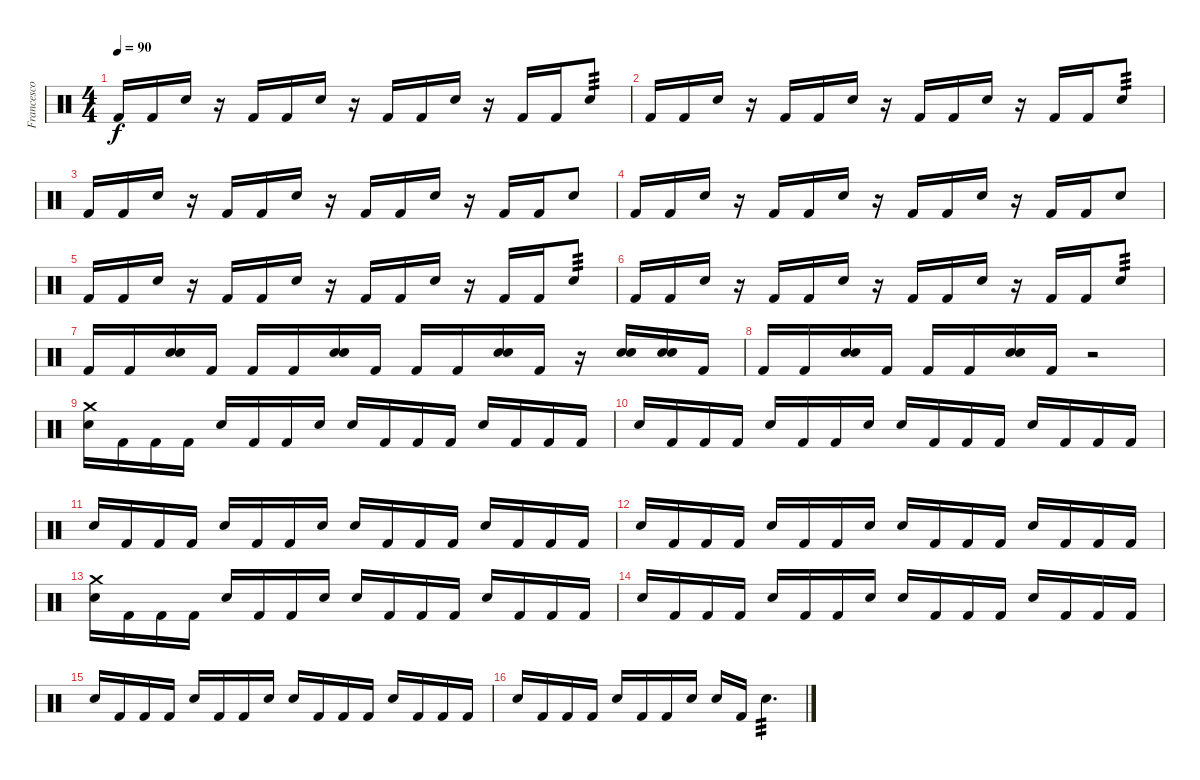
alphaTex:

\track ("Francesco -Franz- Valente" "Francesco ") {instrument percussion}
\staff {score}
\articulation defaults
\ts (4 4)
\tempo 90
\clef neutral
\ks c "Kick (hit) 2".16{dy f} "Kick (hit) 2".16 "Electric Snare (hit)".16
r.16 "Kick (hit) 2".16 "Kick (hit) 2".16 "Electric Snare (hit)".16 r.16 "Kick (hit) 2".16 "Kick (hit) 2".16 "Electric Snare (hit)".16 r.16 "Kick (hit) 2".16 "Kick (hit) 2".16 "Electric Snare (hit)".8{tp 3} |
"Kick (hit) 2".16 "Kick (hit) 2".16 "Electric Snare (hit)".16 r.16 "Kick (hit) 2".16 "Kick (hit) 2".16 "Electric Snare (hit)".16 r.16 "Kick (hit) 2".16 "Kick (hit) 2".16 "Electric Snare (hit)".16 r.16 "Kick (hit) 2".16 "Kick (hit) 2".16 "Electric Snare (hit)".8{tp 3} |
"Kick (hit) 2".16 "Kick (hit) 2".16 "Electric Snare (hit)".16 r.16 "Kick (hit) 2".16 "Kick (hit) 2".16 "Electric Snare (hit)".16 r.16 "Kick (hit) 2".16 "Kick (hit) 2".16 "Electric Snare (hit)".16 r.16 "Kick (hit) 2".16 "Kick (hit) 2".16 "Electric Snare (hit)".8 |
"Kick (hit) 2".16 "Kick (hit) 2".16 "Electric Snare (hit)".16 r.16 "Kick (hit) 2".16 "Kick (hit) 2".16 "Electric Snare (hit)".16 r.16 "Kick (hit) 2".16 "Kick (hit) 2".16 "Electric Snare (hit)".16 r.16 "Kick (hit) 2".16 "Kick (hit) 2".16 "Electric Snare (hit)".8 |
"Kick (hit) 2".16 "Kick (hit) 2".16 "Electric Snare (hit)".16 r.16 "Kick (hit) 2".16 "Kick (hit) 2".16 "Electric Snare (hit)".16 r.16 "Kick (hit) 2".16 "Kick (hit) 2".16 "Electric Snare (hit)".16 r.16 "Kick (hit) 2".16 "Kick (hit) 2".16 "Electric Snare (hit)".8{tp 3} |
"Kick (hit) 2".16 "Kick (hit) 2".16 "Electric Snare (hit)".16 r.16 "Kick (hit) 2".16 "Kick (hit) 2".16 "Electric Snare (hit)".16 r.16 "Kick (hit) 2".16 "Kick (hit) 2".16 "Electric Snare (hit)".16 r.16 "Kick (hit) 2".16 "Kick (hit) 2".16 "Electric Snare (hit)".8{tp 3} |
"Kick (hit) 2".16 "Kick (hit) 2".16 ("Electric Snare (hit)" "Electric Snare (hit)").16 "Kick (hit) 2".16 "Kick (hit) 2".16 "Kick (hit) 2".16 ("Electric Snare (hit)" "Electric Snare (hit)").16 "Kick (hit) 2".16 "Kick (hit) 2".16 "Kick (hit) 2".16 ("Electric Snare (hit)" "Electric Snare (hit)").16 "Kick (hit) 2".16 r.16 ("Electric Snare (hit)" "Electric Snare (hit)").16 ("Electric Snare (hit)" "Electric Snare (hit)").16 "Kick (hit) 2".16 |
"Kick (hit) 2".16 "Kick (hit) 2".16 ("Electric Snare (hit)" "Electric Snare (hit)").16 "Kick (hit) 2".16 "Kick (hit) 2".16 "Kick (hit) 2".16 ("Electric Snare (hit)" "Electric Snare (hit)").16 "Kick (hit) 2".16 r.2 |
("Crash medium (hit)" "Electric Snare (hit)").16 "Kick (hit) 2".16 "Kick (hit) 2".16 "Kick (hit) 2".16 "Electric Snare (hit)".16 "Kick (hit) 2".16 "Kick (hit) 2".16 "Electric Snare (hit)".16 "Electric Snare (hit)".16 "Kick (hit) 2".16 "Kick (hit) 2".16 "Kick (hit) 2".16 "Electric Snare (hit)".16 "Kick (hit) 2".16 "Kick (hit) 2".16 "Kick (hit) 2".16 |
"Electric Snare (hit)".16 "Kick (hit) 2".16 "Kick (hit) 2".16 "Kick (hit) 2".16 "Electric Snare (hit)".16 "Kick (hit) 2".16 "Kick (hit) 2".16 "Electric Snare (hit)".16 "Electric Snare (hit)".16 "Kick (hit) 2".16 "Kick (hit) 2".16 "Kick (hit) 2".16 "Electric Snare (hit)".16 "Kick (hit) 2".16 "Kick (hit) 2".16 "Kick (hit) 2".16 |
"Electric Snare (hit)".16 "Kick (hit) 2".16 "Kick (hit) 2".16 "Kick (hit) 2".16 "Electric Snare (hit)".16 "Kick (hit) 2".16 "Kick (hit) 2".16 "Electric Snare (hit)".16 "Electric Snare (hit)".16 "Kick (hit) 2".16 "Kick (hit) 2".16 "Kick (hit) 2".16 "Electric Snare (hit)".16 "Kick (hit) 2".16 "Kick (hit) 2".16 "Kick (hit) 2".16 |
"Electric Snare (hit)".16 "Kick (hit) 2".16 "Kick (hit) 2".16 "Kick (hit) 2".16 "Electric Snare (hit)".16 "Kick (hit) 2".16 "Kick (hit) 2".16 "Electric Snare (hit)".16 "Electric Snare (hit)".16 "Kick (hit) 2".16 "Kick (hit) 2".16 "Kick (hit) 2".16 "Electric Snare (hit)".16 "Kick (hit) 2".16 "Kick (hit) 2".16 "Kick (hit) 2".16 |
("Crash medium (hit)" "Electric Snare (hit)").16 "Kick (hit) 2".16 "Kick (hit) 2".16 "Kick (hit) 2".16 "Electric Snare (hit)".16 "Kick (hit) 2".16 "Kick (hit) 2".16 "Electric Snare (hit)".16 "Electric Snare (hit)".16 "Kick (hit) 2".16 "Kick (hit) 2".16 "Kick (hit) 2".16 "Electric Snare (hit)".16 "Kick (hit) 2".16 "Kick (hit) 2".16 "Kick (hit) 2".16 |
"Electric Snare (hit)".16 "Kick (hit) 2".16 "Kick (hit) 2".16 "Kick (hit) 2".16 "Electric Snare (hit)".16 "Kick (hit) 2".16 "Kick (hit) 2".16 "Electric Snare (hit)".16 "Electric Snare (hit)".16 "Kick (hit) 2".16 "Kick (hit) 2".16 "Kick (hit) 2".16 "Electric Snare (hit)".16 "Kick (hit) 2".16 "Kick (hit) 2".16 "Kick (hit) 2".16 |
"Electric Snare (hit)".16 "Kick (hit) 2".16 "Kick (hit) 2".16 "Kick (hit) 2".16 "Electric Snare (hit)".16 "Kick (hit) 2".16 "Kick (hit) 2".16 "Electric Snare (hit)".16 "Electric Snare (hit)".16 "Kick (hit) 2".16 "Kick (hit) 2".16 "Kick (hit) 2".16 "Electric Snare (hit)".16 "Kick (hit) 2".16 "Kick (hit) 2".16 "Kick (hit) 2".16 |
"Electric Snare (hit)".16 "Kick (hit) 2".16 "Kick (hit) 2".16 "Kick (hit) 2".16 "Electric Snare (hit)".16 "Kick (hit) 2".16 "Kick (hit) 2".16 "Electric Snare (hit)".16 "Electric Snare (hit)".16 "Kick (hit) 2".16 "Snare (hit) 2".4{d tp 3}
